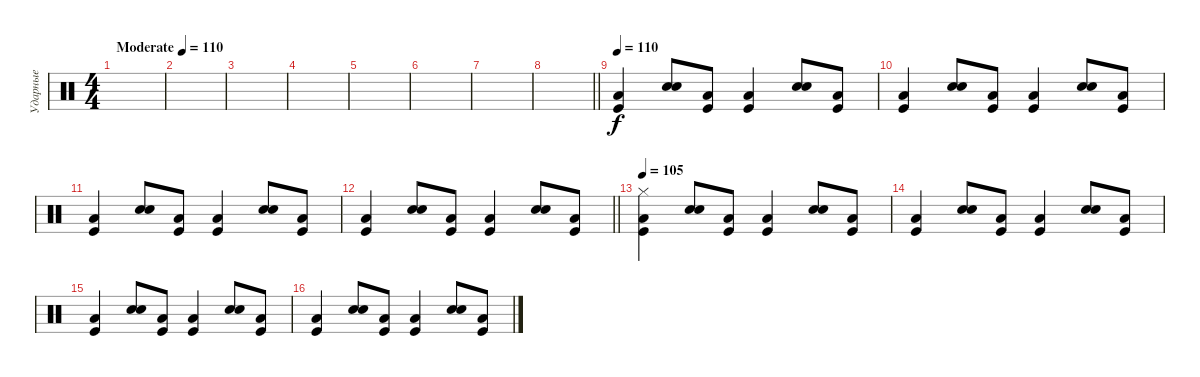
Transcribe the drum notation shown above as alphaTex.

\track ("Ударные" "Ударные") {instrument percussion}
\staff {score}
\articulation defaults
\ts (4 4)
\tempo (110 "Moderate")
\tempo 105
\tempo (110 "Moderate")
\clef neutral
\ks c
|
|
|
|
|
|
|
\barLineRight lightlight
|
\tempo 110
("Low Tom (hit)" "Kick (hit)").4 ("Electric Snare (hit)" "Snare (hit) 2").8 ("Low Tom (hit)" "Kick (hit)").8 ("Low Tom (hit)" "Kick (hit)").4 ("Electric Snare (hit)" "Snare (hit) 2").8 ("Low Tom (hit)" "Kick (hit)").8 |
("Low Tom (hit)" "Kick (hit)").4 ("Electric Snare (hit)" "Snare (hit) 2").8 ("Low Tom (hit)" "Kick (hit)").8 ("Low Tom (hit)" "Kick (hit)").4 ("Electric Snare (hit)" "Snare (hit) 2").8 ("Low Tom (hit)" "Kick (hit)").8 |
("Low Tom (hit)" "Kick (hit)").4 ("Electric Snare (hit)" "Snare (hit) 2").8 ("Low Tom (hit)" "Kick (hit)").8 ("Low Tom (hit)" "Kick (hit)").4 ("Electric Snare (hit)" "Snare (hit) 2").8 ("Low Tom (hit)" "Kick (hit)").8 |
\barLineRight lightlight
("Low Tom (hit)" "Kick (hit)").4 ("Electric Snare (hit)" "Snare (hit) 2").8 ("Low Tom (hit)" "Kick (hit)").8 ("Low Tom (hit)" "Kick (hit)").4 ("Electric Snare (hit)" "Snare (hit) 2").8 ("Low Tom (hit)" "Kick (hit)").8 |
\tempo 105
("Hi-Hat (closed)" "Low Tom (hit)" "Kick (hit)").4 ("Electric Snare (hit)" "Snare (hit) 2").8 ("Low Tom (hit)" "Kick (hit)").8 ("Low Tom (hit)" "Kick (hit)").4 ("Electric Snare (hit)" "Snare (hit) 2").8 ("Low Tom (hit)" "Kick (hit)").8 |
("Low Tom (hit)" "Kick (hit)").4 ("Electric Snare (hit)" "Snare (hit) 2").8 ("Low Tom (hit)" "Kick (hit)").8 ("Low Tom (hit)" "Kick (hit)").4 ("Electric Snare (hit)" "Snare (hit) 2").8 ("Low Tom (hit)" "Kick (hit)").8 |
("Low Tom (hit)" "Kick (hit)").4 ("Electric Snare (hit)" "Snare (hit) 2").8 ("Low Tom (hit)" "Kick (hit)").8 ("Low Tom (hit)" "Kick (hit)").4 ("Electric Snare (hit)" "Snare (hit) 2").8 ("Low Tom (hit)" "Kick (hit)").8 |
("Low Tom (hit)" "Kick (hit)").4 ("Electric Snare (hit)" "Snare (hit) 2").8 ("Low Tom (hit)" "Kick (hit)").8 ("Low Tom (hit)" "Kick (hit)").4 ("Electric Snare (hit)" "Snare (hit) 2").8 ("Low Tom (hit)" "Kick (hit)").8
